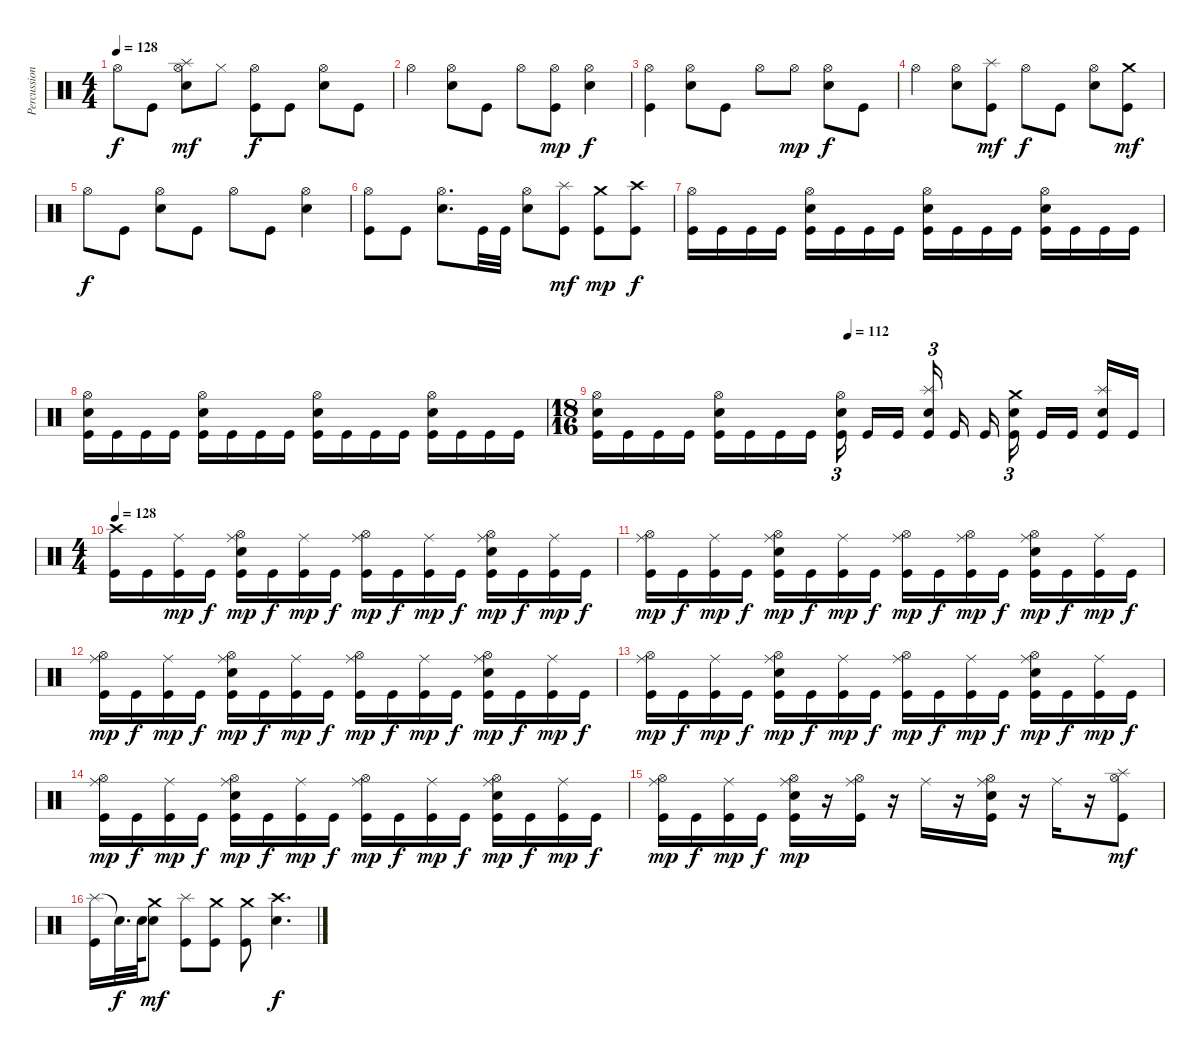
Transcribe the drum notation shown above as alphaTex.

\track ("Percussioni" "Percussion") {instrument percussion}
\staff {score}
\articulation defaults
\ts (4 4)
\tempo 128
\clef neutral
\ks c "Hi-Hat (open)".8{dy f} "Kick (hit)".8
("Splash (hit)" "Hi-Hat (open)" "Snare (hit) 2").8{dy mf} "Hi-Hat (closed)".8 ("Hi-Hat (open)" "Kick (hit)").8{dy f} "Kick (hit)".8 ("Hi-Hat (open)" "Snare (hit) 2").8 "Kick (hit)".8 |
"Hi-Hat (open)".4 ("Hi-Hat (open)" "Snare (hit) 2").8 "Kick (hit)".8 "Hi-Hat (open)".8 ("Hi-Hat (open)" "Kick (hit)").8{dy mp} ("Hi-Hat (open)" "Snare (hit) 2").4{dy f} |
("Hi-Hat (open)" "Kick (hit)").4 ("Hi-Hat (open)" "Snare (hit) 2").8 "Kick (hit)".8 "Hi-Hat (open)".8 "Hi-Hat (open)".8{dy mp} ("Hi-Hat (open)" "Snare (hit) 2").8{dy f} "Kick (hit)".8 |
"Hi-Hat (open)".4 ("Hi-Hat (open)" "Snare (hit) 2").8 ("Splash (hit)" "Kick (hit)").8{dy mf} "Hi-Hat (open)".8{dy f} "Kick (hit)".8 ("Hi-Hat (open)" "Snare (hit) 2").8 ("Crash medium (hit)" "Kick (hit)").8{dy mf} |
"Hi-Hat (open)".8{dy f} "Kick (hit)".8 ("Hi-Hat (open)" "Snare (hit) 2").8 "Kick (hit)".8 "Hi-Hat (open)".8 "Kick (hit)".8 ("Hi-Hat (open)" "Snare (hit) 2").4 |
("Hi-Hat (open)" "Kick (hit)").8 "Kick (hit)".8 ("Hi-Hat (open)" "Snare (hit) 2").8{d} "Kick (hit)".32 "Kick (hit)".32 ("Hi-Hat (open)" "Snare (hit) 2").8 ("Splash (hit)" "Kick (hit)").8{dy mf} ("Crash medium (hit)" "Kick (hit)").8{dy mp} ("Crash high (hit)" "Kick (hit)").8{dy f} |
("Hi-Hat (open)" "Kick (hit)").16 "Kick (hit)".16 "Kick (hit)".16 "Kick (hit)".16 ("Hi-Hat (open)" "Snare (hit) 2" "Kick (hit)").16 "Kick (hit)".16 "Kick (hit)".16 "Kick (hit)".16 ("Hi-Hat (open)" "Snare (hit) 2" "Kick (hit)").16 "Kick (hit)".16 "Kick (hit)".16 "Kick (hit)".16 ("Hi-Hat (open)" "Snare (hit) 2" "Kick (hit)").16 "Kick (hit)".16 "Kick (hit)".16 "Kick (hit)".16 |
("Hi-Hat (open)" "Snare (hit) 2" "Kick (hit)").16 "Kick (hit)".16 "Kick (hit)".16 "Kick (hit)".16 ("Hi-Hat (open)" "Snare (hit) 2" "Kick (hit)").16 "Kick (hit)".16 "Kick (hit)".16 "Kick (hit)".16 ("Hi-Hat (open)" "Snare (hit) 2" "Kick (hit)").16 "Kick (hit)".16 "Kick (hit)".16 "Kick (hit)".16 ("Hi-Hat (open)" "Snare (hit) 2" "Kick (hit)").16 "Kick (hit)".16 "Kick (hit)".16 "Kick (hit)".16 |
\ts (18 16)
\tempo (112 0.4444444444444444)
("Hi-Hat (open)" "Snare (hit) 2" "Kick (hit)").16 "Kick (hit)".16 "Kick (hit)".16 "Kick (hit)".16 ("Hi-Hat (open)" "Snare (hit) 2" "Kick (hit)").16 "Kick (hit)".16 "Kick (hit)".16 "Kick (hit)".16{beam splitsecondary} ("Hi-Hat (open)" "Snare (hit) 2" "Kick (hit)").16{tu (3 2)} "Kick (hit)".16 "Kick (hit)".16{beam splitsecondary} ("Splash (hit)" "Snare (hit) 2" "Kick (hit)").16{tu (3 2)} "Kick (hit)".16 "Kick (hit)".16{beam splitsecondary} ("Crash medium (hit)" "Snare (hit) 2" "Kick (hit)").16{tu (3 2)} "Kick (hit)".16 "Kick (hit)".16 ("Splash (hit)" "Snare (hit) 2" "Kick (hit)").16 "Kick (hit)".16 |
\ts (4 4)
\tempo 128
("Crash high (hit)" "Kick (hit)").16 "Kick (hit)".16 ("Ride (middle)" "Kick (hit)").16{dy mp} "Kick (hit)".16{dy f} ("Ride (middle)" "Hi-Hat (open)" "Snare (hit) 2" "Kick (hit)").16{dy mp} "Kick (hit)".16{dy f} ("Ride (middle)" "Kick (hit)").16{dy mp} "Kick (hit)".16{dy f} ("Ride (middle)" "Hi-Hat (open)" "Kick (hit)").16{dy mp} "Kick (hit)".16{dy f} ("Ride (middle)" "Kick (hit)").16{dy mp} "Kick (hit)".16{dy f} ("Ride (middle)" "Hi-Hat (open)" "Snare (hit) 2" "Kick (hit)").16{dy mp} "Kick (hit)".16{dy f} ("Ride (middle)" "Kick (hit)").16{dy mp} "Kick (hit)".16{dy f} |
("Ride (middle)" "Hi-Hat (open)" "Kick (hit)").16{dy mp} "Kick (hit)".16{dy f} ("Ride (middle)" "Kick (hit)").16{dy mp} "Kick (hit)".16{dy f} ("Ride (middle)" "Hi-Hat (open)" "Snare (hit) 2" "Kick (hit)").16{dy mp} "Kick (hit)".16{dy f} ("Ride (middle)" "Kick (hit)").16{dy mp} "Kick (hit)".16{dy f} ("Ride (middle)" "Hi-Hat (open)" "Kick (hit)").16{dy mp} "Kick (hit)".16{dy f} ("Ride (middle)" "Hi-Hat (open)" "Kick (hit)").16{dy mp} "Kick (hit)".16{dy f} ("Ride (middle)" "Hi-Hat (open)" "Snare (hit) 2" "Kick (hit)").16{dy mp} "Kick (hit)".16{dy f} ("Ride (middle)" "Kick (hit)").16{dy mp} "Kick (hit)".16{dy f} |
("Ride (middle)" "Hi-Hat (open)" "Kick (hit)").16{dy mp} "Kick (hit)".16{dy f} ("Ride (middle)" "Kick (hit)").16{dy mp} "Kick (hit)".16{dy f} ("Ride (middle)" "Hi-Hat (open)" "Snare (hit) 2" "Kick (hit)").16{dy mp} "Kick (hit)".16{dy f} ("Ride (middle)" "Kick (hit)").16{dy mp} "Kick (hit)".16{dy f} ("Ride (middle)" "Hi-Hat (open)" "Kick (hit)").16{dy mp} "Kick (hit)".16{dy f} ("Ride (middle)" "Kick (hit)").16{dy mp} "Kick (hit)".16{dy f} ("Ride (middle)" "Hi-Hat (open)" "Snare (hit) 2" "Kick (hit)").16{dy mp} "Kick (hit)".16{dy f} ("Ride (middle)" "Kick (hit)").16{dy mp} "Kick (hit)".16{dy f} |
("Ride (middle)" "Hi-Hat (open)" "Kick (hit)").16{dy mp} "Kick (hit)".16{dy f} ("Ride (middle)" "Kick (hit)").16{dy mp} "Kick (hit)".16{dy f} ("Ride (middle)" "Hi-Hat (open)" "Snare (hit) 2" "Kick (hit)").16{dy mp} "Kick (hit)".16{dy f} ("Ride (middle)" "Kick (hit)").16{dy mp} "Kick (hit)".16{dy f} ("Ride (middle)" "Hi-Hat (open)" "Kick (hit)").16{dy mp} "Kick (hit)".16{dy f} ("Ride (middle)" "Kick (hit)").16{dy mp} "Kick (hit)".16{dy f} ("Ride (middle)" "Hi-Hat (open)" "Snare (hit) 2" "Kick (hit)").16{dy mp} "Kick (hit)".16{dy f} ("Ride (middle)" "Kick (hit)").16{dy mp} "Kick (hit)".16{dy f} |
("Ride (middle)" "Hi-Hat (open)" "Kick (hit)").16{dy mp} "Kick (hit)".16{dy f} ("Ride (middle)" "Kick (hit)").16{dy mp} "Kick (hit)".16{dy f} ("Ride (middle)" "Hi-Hat (open)" "Snare (hit) 2" "Kick (hit)").16{dy mp} "Kick (hit)".16{dy f} ("Ride (middle)" "Kick (hit)").16{dy mp} "Kick (hit)".16{dy f} ("Ride (middle)" "Hi-Hat (open)" "Kick (hit)").16{dy mp} "Kick (hit)".16{dy f} ("Ride (middle)" "Kick (hit)").16{dy mp} "Kick (hit)".16{dy f} ("Ride (middle)" "Hi-Hat (open)" "Snare (hit) 2" "Kick (hit)").16{dy mp} "Kick (hit)".16{dy f} ("Ride (middle)" "Kick (hit)").16{dy mp} "Kick (hit)".16{dy f} |
("Ride (middle)" "Hi-Hat (open)" "Kick (hit)").16{dy mp} "Kick (hit)".16{dy f} ("Ride (middle)" "Kick (hit)").16{dy mp} "Kick (hit)".16{dy f} ("Ride (middle)" "Hi-Hat (open)" "Snare (hit) 2" "Kick (hit)").16{dy mp} r.16 ("Ride (middle)" "Hi-Hat (open)" "Kick (hit)").16 r.16 "Ride (middle)".16 r.16 ("Ride (middle)" "Hi-Hat (open)" "Snare (hit) 2" "Kick (hit)").16 r.16 "Ride (middle)".16 r.16 ("Splash (hit)" "Hi-Hat (open)" "Kick (hit)").8{dy mf} |
("Splash (hit)" "Kick (hit)").16 "Snare (hit)"{t}.32{d dy f} "Snare (hit) 2".64 ("Crash medium (hit)" "Snare (hit) 2").8{dy mf} ("Splash (hit)" "Kick (hit)").8 ("Crash medium (hit)" "Kick (hit)").8 ("Crash medium (hit)" "Kick (hit)").8 ("Crash high (hit)" "Snare (hit) 2").4{d dy f}
